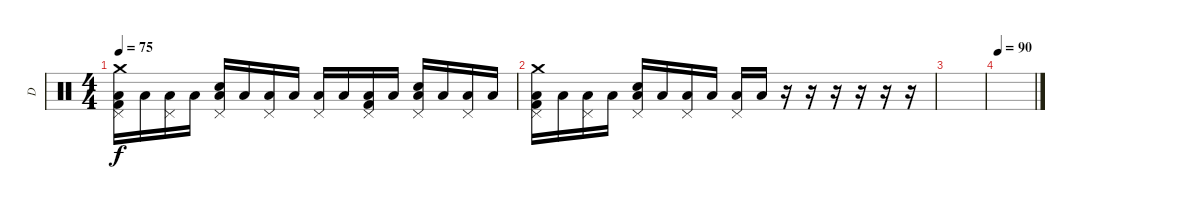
\track ("D" "D") {instrument percussion}
\staff {score}
\articulation defaults
\ts (4 4)
\tempo 75
\clef neutral
\ks c
("Crash medium (hit)" "Kick (hit) 2" "Low Floor Tom (hit)" "Pedal Hi-Hat (hit)").16{dy f} "Low Floor Tom (hit)".16 ("Low Floor Tom (hit)" "Pedal Hi-Hat (hit)").16 "Low Floor Tom (hit)".16 ("Electric Snare (hit)" "Low Floor Tom (hit)" "Pedal Hi-Hat (hit)").16 "Low Floor Tom (hit)".16 ("Low Floor Tom (hit)" "Pedal Hi-Hat (hit)").16 "Low Floor Tom (hit)".16 ("Low Floor Tom (hit)" "Pedal Hi-Hat (hit)").16 "Low Floor Tom (hit)".16 ("Kick (hit) 2" "Low Floor Tom (hit)" "Pedal Hi-Hat (hit)").16 "Low Floor Tom (hit)".16 ("Electric Snare (hit)" "Low Floor Tom (hit)" "Pedal Hi-Hat (hit)").16 "Low Floor Tom (hit)".16 ("Low Floor Tom (hit)" "Pedal Hi-Hat (hit)").16 "Low Floor Tom (hit)".16 |
("Crash medium (hit)" "Kick (hit) 2" "Low Floor Tom (hit)" "Pedal Hi-Hat (hit)").16 "Low Floor Tom (hit)".16 ("Low Floor Tom (hit)" "Pedal Hi-Hat (hit)").16 "Low Floor Tom (hit)".16 ("Electric Snare (hit)" "Low Floor Tom (hit)" "Pedal Hi-Hat (hit)").16 "Low Floor Tom (hit)".16 ("Low Floor Tom (hit)" "Pedal Hi-Hat (hit)").16 "Low Floor Tom (hit)".16 ("Low Floor Tom (hit)" "Pedal Hi-Hat (hit)").16 "Low Floor Tom (hit)".16 r.16 r.16 r.16 r.16 r.16 r.16 |
|
\tempo 90
